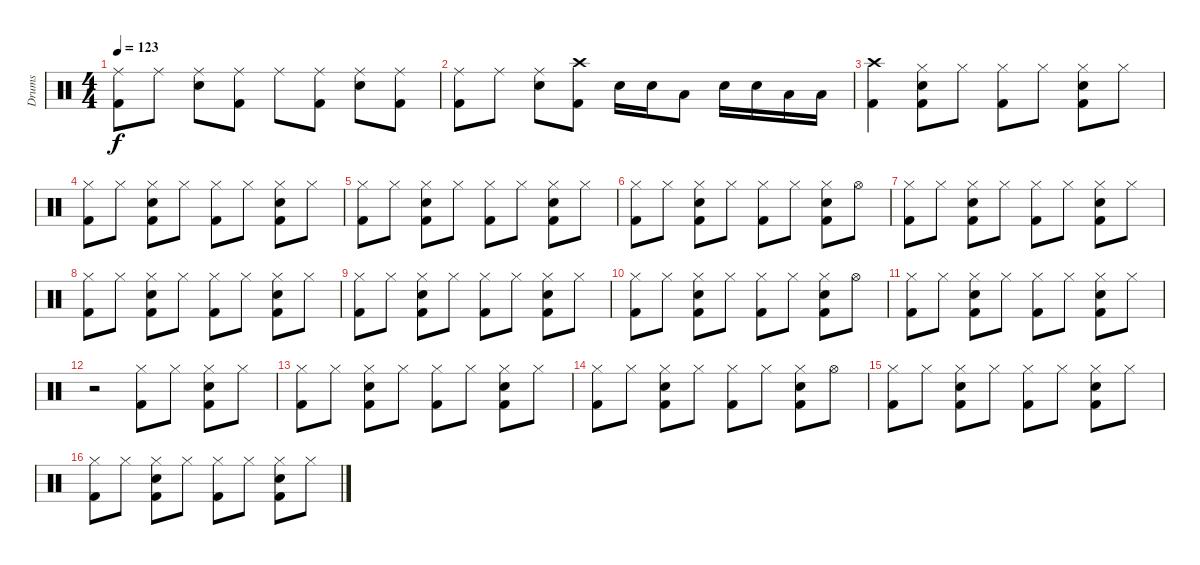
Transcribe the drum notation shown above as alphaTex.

\track ("Drums" "Drums") {instrument percussion}
\staff {score}
\articulation defaults
\ts (4 4)
\tempo 123
\clef neutral
\ks c
("Ride (middle)" "Kick (hit) 2").8{dy f} "Ride (middle)".8 ("Ride (middle)" "Snare (hit) 2").8 ("Ride (middle)" "Kick (hit) 2").8 "Ride (middle)".8 ("Ride (middle)" "Kick (hit) 2").8 ("Ride (middle)" "Snare (hit) 2").8 ("Ride (middle)" "Kick (hit) 2").8 |
("Ride (middle)" "Kick (hit) 2").8 "Ride (middle)".8 ("Ride (middle)" "Snare (hit) 2").8 ("Crash high (hit)" "Kick (hit) 2").8 "Snare (hit) 2".16 "Snare (hit) 2".16 "Low Tom (hit)".8 "Snare (hit) 2".16 "Snare (hit) 2".16 "Low Tom (hit)".16 "Low Tom (hit)".16 |
("Crash high (hit)" "Kick (hit) 2").4 ("Hi-Hat (closed)" "Snare (hit) 2" "Kick (hit) 2").8 "Hi-Hat (closed)".8 ("Hi-Hat (closed)" "Kick (hit) 2").8 "Hi-Hat (closed)".8 ("Hi-Hat (closed)" "Snare (hit) 2" "Kick (hit) 2").8 "Hi-Hat (closed)".8 |
("Hi-Hat (closed)" "Kick (hit) 2").8 "Hi-Hat (closed)".8 ("Hi-Hat (closed)" "Snare (hit) 2" "Kick (hit) 2").8 "Hi-Hat (closed)".8 ("Hi-Hat (closed)" "Kick (hit) 2").8 "Hi-Hat (closed)".8 ("Hi-Hat (closed)" "Snare (hit) 2" "Kick (hit) 2").8 "Hi-Hat (closed)".8 |
("Hi-Hat (closed)" "Kick (hit) 2").8 "Hi-Hat (closed)".8 ("Hi-Hat (closed)" "Snare (hit) 2" "Kick (hit) 2").8 "Hi-Hat (closed)".8 ("Hi-Hat (closed)" "Kick (hit) 2").8 "Hi-Hat (closed)".8 ("Hi-Hat (closed)" "Snare (hit) 2" "Kick (hit) 2").8 "Hi-Hat (closed)".8 |
("Hi-Hat (closed)" "Kick (hit) 2").8 "Hi-Hat (closed)".8 ("Hi-Hat (closed)" "Snare (hit) 2" "Kick (hit) 2").8 "Hi-Hat (closed)".8 ("Hi-Hat (closed)" "Kick (hit) 2").8 "Hi-Hat (closed)".8 ("Hi-Hat (closed)" "Snare (hit) 2" "Kick (hit) 2").8 "Hi-Hat (open)".8 |
("Hi-Hat (closed)" "Kick (hit) 2").8 "Hi-Hat (closed)".8 ("Hi-Hat (closed)" "Snare (hit) 2" "Kick (hit) 2").8 "Hi-Hat (closed)".8 ("Hi-Hat (closed)" "Kick (hit) 2").8 "Hi-Hat (closed)".8 ("Hi-Hat (closed)" "Snare (hit) 2" "Kick (hit) 2").8 "Hi-Hat (closed)".8 |
("Hi-Hat (closed)" "Kick (hit) 2").8 "Hi-Hat (closed)".8 ("Hi-Hat (closed)" "Snare (hit) 2" "Kick (hit) 2").8 "Hi-Hat (closed)".8 ("Hi-Hat (closed)" "Kick (hit) 2").8 "Hi-Hat (closed)".8 ("Hi-Hat (closed)" "Snare (hit) 2" "Kick (hit) 2").8 "Hi-Hat (closed)".8 |
("Hi-Hat (closed)" "Kick (hit) 2").8 "Hi-Hat (closed)".8 ("Hi-Hat (closed)" "Snare (hit) 2" "Kick (hit) 2").8 "Hi-Hat (closed)".8 ("Hi-Hat (closed)" "Kick (hit) 2").8 "Hi-Hat (closed)".8 ("Hi-Hat (closed)" "Snare (hit) 2" "Kick (hit) 2").8 "Hi-Hat (closed)".8 |
("Hi-Hat (closed)" "Kick (hit) 2").8 "Hi-Hat (closed)".8 ("Hi-Hat (closed)" "Snare (hit) 2" "Kick (hit) 2").8 "Hi-Hat (closed)".8 ("Hi-Hat (closed)" "Kick (hit) 2").8 "Hi-Hat (closed)".8 ("Hi-Hat (closed)" "Snare (hit) 2" "Kick (hit) 2").8 "Hi-Hat (open)".8 |
("Hi-Hat (closed)" "Kick (hit) 2").8 "Hi-Hat (closed)".8 ("Hi-Hat (closed)" "Snare (hit) 2" "Kick (hit) 2").8 "Hi-Hat (closed)".8 ("Hi-Hat (closed)" "Kick (hit) 2").8 "Hi-Hat (closed)".8 ("Hi-Hat (closed)" "Snare (hit) 2" "Kick (hit) 2").8 "Hi-Hat (closed)".8 |
r.2 ("Hi-Hat (closed)" "Kick (hit) 2").8 "Hi-Hat (closed)".8 ("Hi-Hat (closed)" "Snare (hit) 2" "Kick (hit) 2").8 "Hi-Hat (closed)".8 |
("Hi-Hat (closed)" "Kick (hit) 2").8 "Hi-Hat (closed)".8 ("Hi-Hat (closed)" "Snare (hit) 2" "Kick (hit) 2").8 "Hi-Hat (closed)".8 ("Hi-Hat (closed)" "Kick (hit) 2").8 "Hi-Hat (closed)".8 ("Hi-Hat (closed)" "Snare (hit) 2" "Kick (hit) 2").8 "Hi-Hat (closed)".8 |
("Hi-Hat (closed)" "Kick (hit) 2").8 "Hi-Hat (closed)".8 ("Hi-Hat (closed)" "Snare (hit) 2" "Kick (hit) 2").8 "Hi-Hat (closed)".8 ("Hi-Hat (closed)" "Kick (hit) 2").8 "Hi-Hat (closed)".8 ("Hi-Hat (closed)" "Snare (hit) 2" "Kick (hit) 2").8 "Hi-Hat (open)".8 |
("Hi-Hat (closed)" "Kick (hit) 2").8 "Hi-Hat (closed)".8 ("Hi-Hat (closed)" "Snare (hit) 2" "Kick (hit) 2").8 "Hi-Hat (closed)".8 ("Hi-Hat (closed)" "Kick (hit) 2").8 "Hi-Hat (closed)".8 ("Hi-Hat (closed)" "Snare (hit) 2" "Kick (hit) 2").8 "Hi-Hat (closed)".8 |
("Hi-Hat (closed)" "Kick (hit) 2").8 "Hi-Hat (closed)".8 ("Hi-Hat (closed)" "Snare (hit) 2" "Kick (hit) 2").8 "Hi-Hat (closed)".8 ("Hi-Hat (closed)" "Kick (hit) 2").8 "Hi-Hat (closed)".8 ("Hi-Hat (closed)" "Snare (hit) 2" "Kick (hit) 2").8 "Hi-Hat (closed)".8
